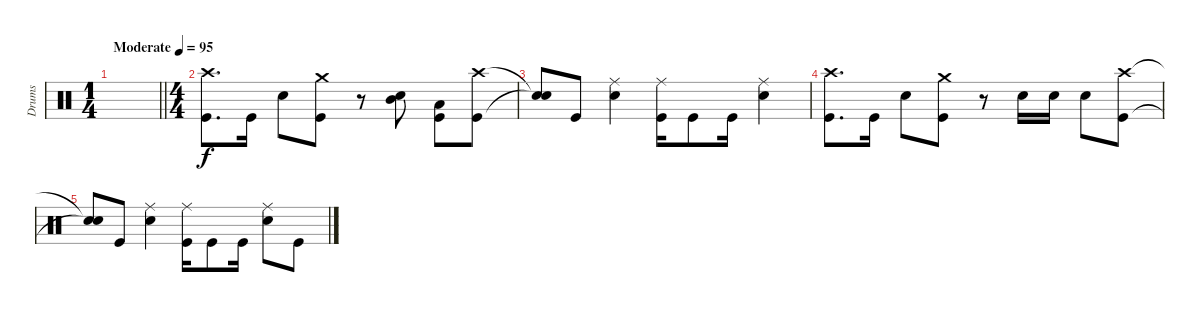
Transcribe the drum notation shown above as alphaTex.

\track ("Drums" "Drums") {instrument percussion}
\staff
\articulation defaults
\ts (1 4)
\tempo (95 "Moderate")
\clef neutral
\barLineRight lightlight
\ks c
|
\ts (4 4)
("Crash high (hit)" "Kick (hit)").8{d} "Kick (hit)".16 "Electric Snare (hit)".8 ("Crash medium (hit)" "Kick (hit)").8 r.8 ("Mid Tom (hit)" "Electric Snare (hit)").8 ("Low Tom (hit)" "Kick (hit)").8 ("Crash high (hit)" "Kick (hit)").8 |
("Snare (hit)"{t} "Snare (hit)"{t}).8 "Kick (hit)".8 ("Ride (middle)" "Electric Snare (hit)").4 ("Ride (middle)" "Kick (hit)").16 "Kick (hit)".8 "Kick (hit)".16 ("Ride (middle)" "Electric Snare (hit)").4 |
("Crash high (hit)" "Kick (hit)").8{d} "Kick (hit)".16 "Electric Snare (hit)".8 ("Crash medium (hit)" "Kick (hit)").8 r.8 "Electric Snare (hit)".16 "Electric Snare (hit)".16 "Electric Snare (hit)".8 ("Crash high (hit)" "Kick (hit)").8 |
("Snare (hit)"{t} "Snare (hit)"{t}).8 "Kick (hit)".8 ("Ride (middle)" "Electric Snare (hit)").4 ("Ride (middle)" "Kick (hit)").16 "Kick (hit)".8 "Kick (hit)".16 ("Ride (middle)" "Electric Snare (hit)").8 "Kick (hit)".8
